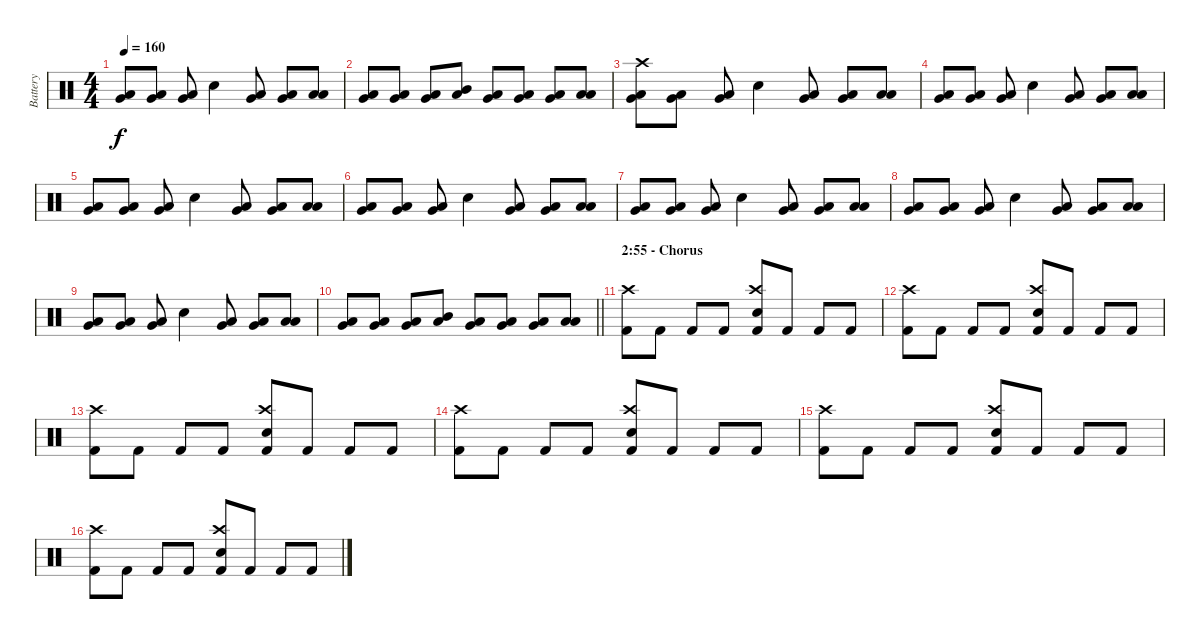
\track ("Battery" "Battery") {instrument percussion}
\staff {score}
\articulation defaults
\ts (4 4)
\tempo 160
\clef neutral
\ks c
("Low Floor Tom (hit)" "Very Low Tom (hit)").8{dy f} ("Low Floor Tom (hit)" "Very Low Tom (hit)").8 ("Low Floor Tom (hit)" "Very Low Tom (hit)").8 "Electric Snare (hit)".4 ("Very Low Tom (hit)" "Low Tom (hit)").8 ("Low Floor Tom (hit)" "Very Low Tom (hit)").8 ("Low Floor Tom (hit)" "Low Floor Tom (hit)").8 |
("Low Floor Tom (hit)" "Very Low Tom (hit)").8 ("Low Floor Tom (hit)" "Very Low Tom (hit)").8 ("Low Floor Tom (hit)" "Very Low Tom (hit)").8 ("Low Tom (hit)" "Mid Tom (hit)").8 ("Low Floor Tom (hit)" "Very Low Tom (hit)").8 ("Very Low Tom (hit)" "Low Tom (hit)").8 ("Low Floor Tom (hit)" "Very Low Tom (hit)").8 ("Low Floor Tom (hit)" "Low Floor Tom (hit)").8 |
("Crash high (hit)" "Low Floor Tom (hit)" "Very Low Tom (hit)").8 ("Low Floor Tom (hit)" "Very Low Tom (hit)").8 ("Low Floor Tom (hit)" "Very Low Tom (hit)").8 "Electric Snare (hit)".4 ("Very Low Tom (hit)" "Low Tom (hit)").8 ("Low Floor Tom (hit)" "Very Low Tom (hit)").8 ("Low Floor Tom (hit)" "Low Floor Tom (hit)").8 |
("Low Floor Tom (hit)" "Very Low Tom (hit)").8 ("Low Floor Tom (hit)" "Very Low Tom (hit)").8 ("Low Floor Tom (hit)" "Very Low Tom (hit)").8 "Electric Snare (hit)".4 ("Very Low Tom (hit)" "Low Tom (hit)").8 ("Low Floor Tom (hit)" "Very Low Tom (hit)").8 ("Low Floor Tom (hit)" "Low Floor Tom (hit)").8 |
("Low Floor Tom (hit)" "Very Low Tom (hit)").8 ("Low Floor Tom (hit)" "Very Low Tom (hit)").8 ("Low Floor Tom (hit)" "Very Low Tom (hit)").8 "Electric Snare (hit)".4 ("Very Low Tom (hit)" "Low Tom (hit)").8 ("Low Floor Tom (hit)" "Very Low Tom (hit)").8 ("Low Floor Tom (hit)" "Low Floor Tom (hit)").8 |
("Low Floor Tom (hit)" "Very Low Tom (hit)").8 ("Low Floor Tom (hit)" "Very Low Tom (hit)").8 ("Low Floor Tom (hit)" "Very Low Tom (hit)").8 "Electric Snare (hit)".4 ("Very Low Tom (hit)" "Low Tom (hit)").8 ("Low Floor Tom (hit)" "Very Low Tom (hit)").8 ("Low Floor Tom (hit)" "Low Floor Tom (hit)").8 |
("Low Floor Tom (hit)" "Very Low Tom (hit)").8 ("Low Floor Tom (hit)" "Very Low Tom (hit)").8 ("Low Floor Tom (hit)" "Very Low Tom (hit)").8 "Electric Snare (hit)".4 ("Very Low Tom (hit)" "Low Tom (hit)").8 ("Low Floor Tom (hit)" "Very Low Tom (hit)").8 ("Low Floor Tom (hit)" "Low Floor Tom (hit)").8 |
("Low Floor Tom (hit)" "Very Low Tom (hit)").8 ("Low Floor Tom (hit)" "Very Low Tom (hit)").8 ("Low Floor Tom (hit)" "Very Low Tom (hit)").8 "Electric Snare (hit)".4 ("Very Low Tom (hit)" "Low Tom (hit)").8 ("Low Floor Tom (hit)" "Very Low Tom (hit)").8 ("Low Floor Tom (hit)" "Low Floor Tom (hit)").8 |
("Low Floor Tom (hit)" "Very Low Tom (hit)").8 ("Low Floor Tom (hit)" "Very Low Tom (hit)").8 ("Low Floor Tom (hit)" "Very Low Tom (hit)").8 "Electric Snare (hit)".4 ("Very Low Tom (hit)" "Low Tom (hit)").8 ("Low Floor Tom (hit)" "Very Low Tom (hit)").8 ("Low Floor Tom (hit)" "Low Floor Tom (hit)").8 |
\barLineRight lightlight
("Low Floor Tom (hit)" "Very Low Tom (hit)").8 ("Low Floor Tom (hit)" "Very Low Tom (hit)").8 ("Low Floor Tom (hit)" "Very Low Tom (hit)").8 ("Low Tom (hit)" "Mid Tom (hit)").8 ("Low Floor Tom (hit)" "Very Low Tom (hit)").8 ("Very Low Tom (hit)" "Low Tom (hit)").8 ("Low Floor Tom (hit)" "Very Low Tom (hit)").8 ("Low Floor Tom (hit)" "Low Floor Tom (hit)").8 |
\section ("" "2:55 - Chorus")
("Crash high (hit)" "Kick (hit) 2").8 "Kick (hit) 2".8 "Kick (hit) 2".8 "Kick (hit) 2".8 ("Crash high (hit)" "Electric Snare (hit)" "Kick (hit) 2").8 "Kick (hit) 2".8 "Kick (hit) 2".8 "Kick (hit) 2".8 |
("Crash high (hit)" "Kick (hit) 2").8 "Kick (hit) 2".8 "Kick (hit) 2".8 "Kick (hit) 2".8 ("Crash high (hit)" "Electric Snare (hit)" "Kick (hit) 2").8 "Kick (hit) 2".8 "Kick (hit) 2".8 "Kick (hit) 2".8 |
("Crash high (hit)" "Kick (hit) 2").8 "Kick (hit) 2".8 "Kick (hit) 2".8 "Kick (hit) 2".8 ("Crash high (hit)" "Electric Snare (hit)" "Kick (hit) 2").8 "Kick (hit) 2".8 "Kick (hit) 2".8 "Kick (hit) 2".8 |
("Crash high (hit)" "Kick (hit) 2").8 "Kick (hit) 2".8 "Kick (hit) 2".8 "Kick (hit) 2".8 ("Crash high (hit)" "Electric Snare (hit)" "Kick (hit) 2").8 "Kick (hit) 2".8 "Kick (hit) 2".8 "Kick (hit) 2".8 |
("Crash high (hit)" "Kick (hit) 2").8 "Kick (hit) 2".8 "Kick (hit) 2".8 "Kick (hit) 2".8 ("Crash high (hit)" "Electric Snare (hit)" "Kick (hit) 2").8 "Kick (hit) 2".8 "Kick (hit) 2".8 "Kick (hit) 2".8 |
("Crash high (hit)" "Kick (hit) 2").8 "Kick (hit) 2".8 "Kick (hit) 2".8 "Kick (hit) 2".8 ("Crash high (hit)" "Electric Snare (hit)" "Kick (hit) 2").8 "Kick (hit) 2".8 "Kick (hit) 2".8 "Kick (hit) 2".8
